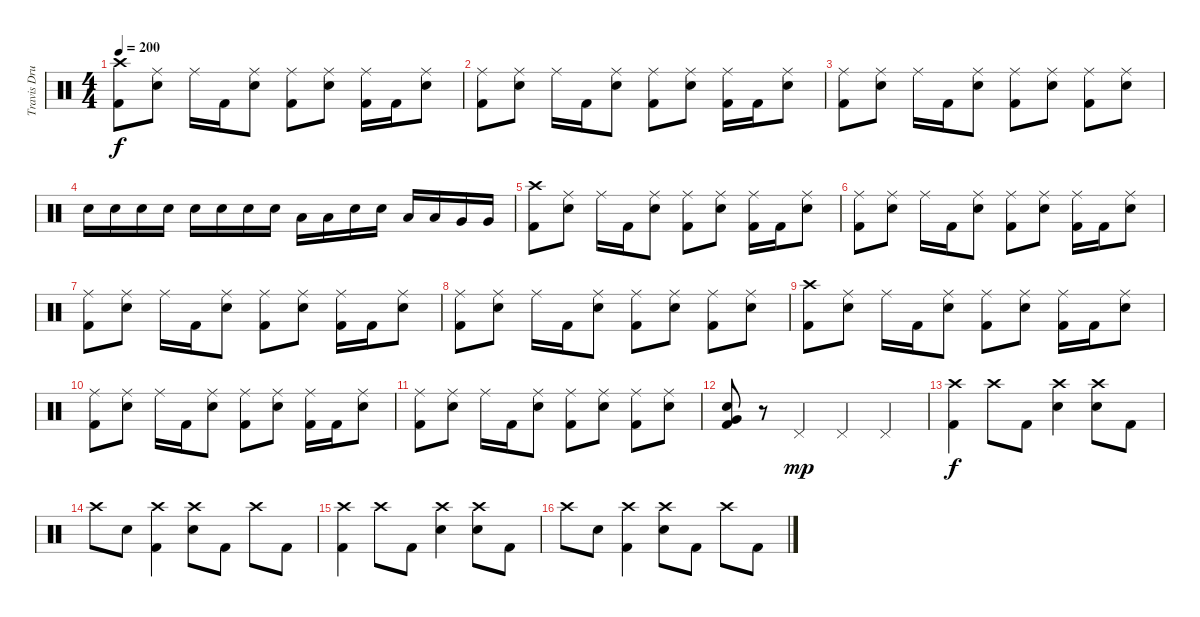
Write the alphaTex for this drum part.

\track ("Travis Drums" "Travis Dru") {instrument percussion}
\staff {score}
\articulation defaults
\ts (4 4)
\tempo 200
\clef neutral
\ks c
("Crash high (hit)" "Kick (hit) 2").8{dy f} ("Ride (middle)" "Electric Snare (hit)").8 "Ride (middle)".16 "Kick (hit) 2".16 ("Ride (middle)" "Electric Snare (hit)").8 ("Ride (middle)" "Kick (hit) 2").8 ("Ride (middle)" "Electric Snare (hit)").8 ("Ride (middle)" "Kick (hit) 2").16 "Kick (hit) 2".16 ("Ride (middle)" "Electric Snare (hit)").8 |
("Ride (middle)" "Kick (hit) 2").8 ("Ride (middle)" "Electric Snare (hit)").8 "Ride (middle)".16 "Kick (hit) 2".16 ("Ride (middle)" "Electric Snare (hit)").8 ("Ride (middle)" "Kick (hit) 2").8 ("Ride (middle)" "Electric Snare (hit)").8 ("Ride (middle)" "Kick (hit) 2").16 "Kick (hit) 2".16 ("Ride (middle)" "Electric Snare (hit)").8 |
("Ride (middle)" "Kick (hit) 2").8 ("Ride (middle)" "Electric Snare (hit)").8 "Ride (middle)".16 "Kick (hit) 2".16 ("Ride (middle)" "Electric Snare (hit)").8 ("Ride (middle)" "Kick (hit) 2").8 ("Ride (middle)" "Electric Snare (hit)").8 ("Ride (middle)" "Kick (hit) 2").8 ("Ride (middle)" "Electric Snare (hit)").8 |
"Electric Snare (hit)".16 "Electric Snare (hit)".16 "Electric Snare (hit)".16 "Electric Snare (hit)".16 "Electric Snare (hit)".16 "Electric Snare (hit)".16 "Electric Snare (hit)".16 "Electric Snare (hit)".16 "Low Tom (hit)".16 "Low Tom (hit)".16 "Electric Snare (hit)".16 "Electric Snare (hit)".16 "Low Tom (hit)".16 "Low Tom (hit)".16 "Very Low Tom (hit)".16 "Very Low Tom (hit)".16 |
("Crash high (hit)" "Kick (hit) 2").8 ("Ride (middle)" "Electric Snare (hit)").8 "Ride (middle)".16 "Kick (hit) 2".16 ("Ride (middle)" "Electric Snare (hit)").8 ("Ride (middle)" "Kick (hit) 2").8 ("Ride (middle)" "Electric Snare (hit)").8 ("Ride (middle)" "Kick (hit) 2").16 "Kick (hit) 2".16 ("Ride (middle)" "Electric Snare (hit)").8 |
("Ride (middle)" "Kick (hit) 2").8 ("Ride (middle)" "Electric Snare (hit)").8 "Ride (middle)".16 "Kick (hit) 2".16 ("Ride (middle)" "Electric Snare (hit)").8 ("Ride (middle)" "Kick (hit) 2").8 ("Ride (middle)" "Electric Snare (hit)").8 ("Ride (middle)" "Kick (hit) 2").16 "Kick (hit) 2".16 ("Ride (middle)" "Electric Snare (hit)").8 |
("Ride (middle)" "Kick (hit) 2").8 ("Ride (middle)" "Electric Snare (hit)").8 "Ride (middle)".16 "Kick (hit) 2".16 ("Ride (middle)" "Electric Snare (hit)").8 ("Ride (middle)" "Kick (hit) 2").8 ("Ride (middle)" "Electric Snare (hit)").8 ("Ride (middle)" "Kick (hit) 2").16 "Kick (hit) 2".16 ("Ride (middle)" "Electric Snare (hit)").8 |
("Ride (middle)" "Kick (hit) 2").8 ("Ride (middle)" "Electric Snare (hit)").8 "Ride (middle)".16 "Kick (hit) 2".16 ("Ride (middle)" "Electric Snare (hit)").8 ("Ride (middle)" "Kick (hit) 2").8 ("Ride (middle)" "Electric Snare (hit)").8 ("Ride (middle)" "Kick (hit) 2").8 ("Ride (middle)" "Electric Snare (hit)").8 |
("Crash high (hit)" "Kick (hit) 2").8 ("Ride (middle)" "Electric Snare (hit)").8 "Ride (middle)".16 "Kick (hit) 2".16 ("Ride (middle)" "Electric Snare (hit)").8 ("Ride (middle)" "Kick (hit) 2").8 ("Ride (middle)" "Electric Snare (hit)").8 ("Ride (middle)" "Kick (hit) 2").16 "Kick (hit) 2".16 ("Ride (middle)" "Electric Snare (hit)").8 |
("Ride (middle)" "Kick (hit) 2").8 ("Ride (middle)" "Electric Snare (hit)").8 "Ride (middle)".16 "Kick (hit) 2".16 ("Ride (middle)" "Electric Snare (hit)").8 ("Ride (middle)" "Kick (hit) 2").8 ("Ride (middle)" "Electric Snare (hit)").8 ("Ride (middle)" "Kick (hit) 2").16 "Kick (hit) 2".16 ("Ride (middle)" "Electric Snare (hit)").8 |
("Ride (middle)" "Kick (hit) 2").8 ("Ride (middle)" "Electric Snare (hit)").8 "Ride (middle)".16 "Kick (hit) 2".16 ("Ride (middle)" "Electric Snare (hit)").8 ("Ride (middle)" "Kick (hit) 2").8 ("Ride (middle)" "Electric Snare (hit)").8 ("Ride (middle)" "Kick (hit) 2").8 ("Ride (middle)" "Electric Snare (hit)").8 |
("Very Low Tom (hit)" "Electric Snare (hit)" "Kick (hit) 2").8 r.8 "Pedal Hi-Hat (hit)".4{dy mp} "Pedal Hi-Hat (hit)".4 "Pedal Hi-Hat (hit)".4 |
("Crash high (hit)" "Kick (hit) 2").4{dy f} "Crash high (hit)".8 "Kick (hit) 2".8 ("Crash high (hit)" "Electric Snare (hit)").4 ("Crash high (hit)" "Electric Snare (hit)").8 "Kick (hit) 2".8 |
"Crash high (hit)".8 "Electric Snare (hit)".8 ("Crash high (hit)" "Kick (hit) 2").4 ("Crash high (hit)" "Electric Snare (hit)").8 "Kick (hit) 2".8 "Crash high (hit)".8 "Kick (hit) 2".8 |
("Crash high (hit)" "Kick (hit) 2").4 "Crash high (hit)".8 "Kick (hit) 2".8 ("Crash high (hit)" "Electric Snare (hit)").4 ("Crash high (hit)" "Electric Snare (hit)").8 "Kick (hit) 2".8 |
"Crash high (hit)".8 "Electric Snare (hit)".8 ("Crash high (hit)" "Kick (hit) 2").4 ("Crash high (hit)" "Electric Snare (hit)").8 "Kick (hit) 2".8 "Crash high (hit)".8 "Kick (hit) 2".8
